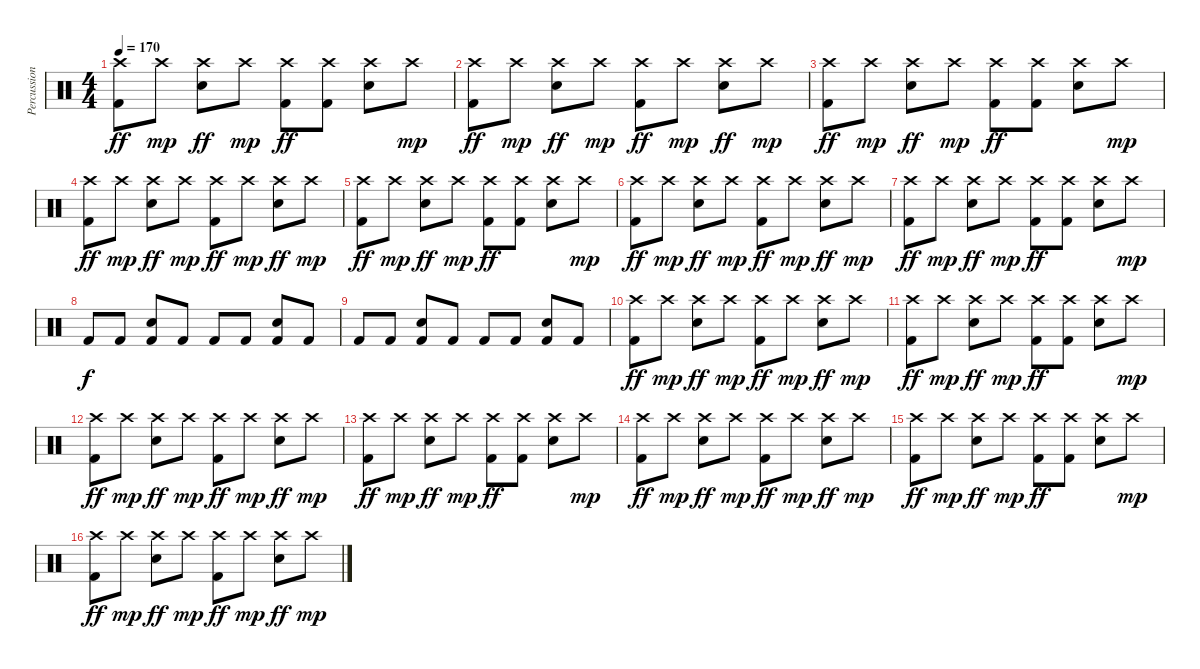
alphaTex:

\track ("Percussion" "Percussion") {instrument percussion}
\staff {score}
\articulation defaults
\ts (4 4)
\tempo 170
\clef neutral
\ks c
("Crash high (hit)" "Kick (hit) 2").8{dy ff} "Crash high (hit)".8{dy mp} ("Crash high (hit)" "Electric Snare (hit)").8{dy ff} "Crash high (hit)".8{dy mp} ("Crash high (hit)" "Kick (hit) 2").8{dy ff} ("Crash high (hit)" "Kick (hit) 2").8 ("Crash high (hit)" "Electric Snare (hit)").8 "Crash high (hit)".8{dy mp} |
("Crash high (hit)" "Kick (hit) 2").8{dy ff} "Crash high (hit)".8{dy mp} ("Crash high (hit)" "Electric Snare (hit)").8{dy ff} "Crash high (hit)".8{dy mp} ("Crash high (hit)" "Kick (hit) 2").8{dy ff} "Crash high (hit)".8{dy mp} ("Crash high (hit)" "Electric Snare (hit)").8{dy ff} "Crash high (hit)".8{dy mp} |
("Crash high (hit)" "Kick (hit) 2").8{dy ff} "Crash high (hit)".8{dy mp} ("Crash high (hit)" "Electric Snare (hit)").8{dy ff} "Crash high (hit)".8{dy mp} ("Crash high (hit)" "Kick (hit) 2").8{dy ff} ("Crash high (hit)" "Kick (hit) 2").8 ("Crash high (hit)" "Electric Snare (hit)").8 "Crash high (hit)".8{dy mp} |
("Crash high (hit)" "Kick (hit) 2").8{dy ff} "Crash high (hit)".8{dy mp} ("Crash high (hit)" "Electric Snare (hit)").8{dy ff} "Crash high (hit)".8{dy mp} ("Crash high (hit)" "Kick (hit) 2").8{dy ff} "Crash high (hit)".8{dy mp} ("Crash high (hit)" "Electric Snare (hit)").8{dy ff} "Crash high (hit)".8{dy mp} |
("Crash high (hit)" "Kick (hit) 2").8{dy ff} "Crash high (hit)".8{dy mp} ("Crash high (hit)" "Electric Snare (hit)").8{dy ff} "Crash high (hit)".8{dy mp} ("Crash high (hit)" "Kick (hit) 2").8{dy ff} ("Crash high (hit)" "Kick (hit) 2").8 ("Crash high (hit)" "Electric Snare (hit)").8 "Crash high (hit)".8{dy mp} |
("Crash high (hit)" "Kick (hit) 2").8{dy ff} "Crash high (hit)".8{dy mp} ("Crash high (hit)" "Electric Snare (hit)").8{dy ff} "Crash high (hit)".8{dy mp} ("Crash high (hit)" "Kick (hit) 2").8{dy ff} "Crash high (hit)".8{dy mp} ("Crash high (hit)" "Electric Snare (hit)").8{dy ff} "Crash high (hit)".8{dy mp} |
("Crash high (hit)" "Kick (hit) 2").8{dy ff} "Crash high (hit)".8{dy mp} ("Crash high (hit)" "Electric Snare (hit)").8{dy ff} "Crash high (hit)".8{dy mp} ("Crash high (hit)" "Kick (hit) 2").8{dy ff} ("Crash high (hit)" "Kick (hit) 2").8 ("Crash high (hit)" "Electric Snare (hit)").8 "Crash high (hit)".8{dy mp} |
"Kick (hit) 2".8{dy f} "Kick (hit) 2".8 ("Electric Snare (hit)" "Kick (hit) 2").8 "Kick (hit) 2".8 "Kick (hit) 2".8 "Kick (hit) 2".8 ("Electric Snare (hit)" "Kick (hit) 2").8 "Kick (hit) 2".8 |
"Kick (hit) 2".8 "Kick (hit) 2".8 ("Electric Snare (hit)" "Kick (hit) 2").8 "Kick (hit) 2".8 "Kick (hit) 2".8 "Kick (hit) 2".8 ("Electric Snare (hit)" "Kick (hit) 2").8 "Kick (hit) 2".8 |
("Crash high (hit)" "Kick (hit) 2").8{dy ff} "Crash high (hit)".8{dy mp} ("Crash high (hit)" "Electric Snare (hit)").8{dy ff} "Crash high (hit)".8{dy mp} ("Crash high (hit)" "Kick (hit) 2").8{dy ff} "Crash high (hit)".8{dy mp} ("Crash high (hit)" "Electric Snare (hit)").8{dy ff} "Crash high (hit)".8{dy mp} |
("Crash high (hit)" "Kick (hit) 2").8{dy ff} "Crash high (hit)".8{dy mp} ("Crash high (hit)" "Electric Snare (hit)").8{dy ff} "Crash high (hit)".8{dy mp} ("Crash high (hit)" "Kick (hit) 2").8{dy ff} ("Crash high (hit)" "Kick (hit) 2").8 ("Crash high (hit)" "Electric Snare (hit)").8 "Crash high (hit)".8{dy mp} |
("Crash high (hit)" "Kick (hit) 2").8{dy ff} "Crash high (hit)".8{dy mp} ("Crash high (hit)" "Electric Snare (hit)").8{dy ff} "Crash high (hit)".8{dy mp} ("Crash high (hit)" "Kick (hit) 2").8{dy ff} "Crash high (hit)".8{dy mp} ("Crash high (hit)" "Electric Snare (hit)").8{dy ff} "Crash high (hit)".8{dy mp} |
("Crash high (hit)" "Kick (hit) 2").8{dy ff} "Crash high (hit)".8{dy mp} ("Crash high (hit)" "Electric Snare (hit)").8{dy ff} "Crash high (hit)".8{dy mp} ("Crash high (hit)" "Kick (hit) 2").8{dy ff} ("Crash high (hit)" "Kick (hit) 2").8 ("Crash high (hit)" "Electric Snare (hit)").8 "Crash high (hit)".8{dy mp} |
("Crash high (hit)" "Kick (hit) 2").8{dy ff} "Crash high (hit)".8{dy mp} ("Crash high (hit)" "Electric Snare (hit)").8{dy ff} "Crash high (hit)".8{dy mp} ("Crash high (hit)" "Kick (hit) 2").8{dy ff} "Crash high (hit)".8{dy mp} ("Crash high (hit)" "Electric Snare (hit)").8{dy ff} "Crash high (hit)".8{dy mp} |
("Crash high (hit)" "Kick (hit) 2").8{dy ff} "Crash high (hit)".8{dy mp} ("Crash high (hit)" "Electric Snare (hit)").8{dy ff} "Crash high (hit)".8{dy mp} ("Crash high (hit)" "Kick (hit) 2").8{dy ff} ("Crash high (hit)" "Kick (hit) 2").8 ("Crash high (hit)" "Electric Snare (hit)").8 "Crash high (hit)".8{dy mp} |
("Crash high (hit)" "Kick (hit) 2").8{dy ff} "Crash high (hit)".8{dy mp} ("Crash high (hit)" "Electric Snare (hit)").8{dy ff} "Crash high (hit)".8{dy mp} ("Crash high (hit)" "Kick (hit) 2").8{dy ff} "Crash high (hit)".8{dy mp} ("Crash high (hit)" "Electric Snare (hit)").8{dy ff} "Crash high (hit)".8{dy mp}
